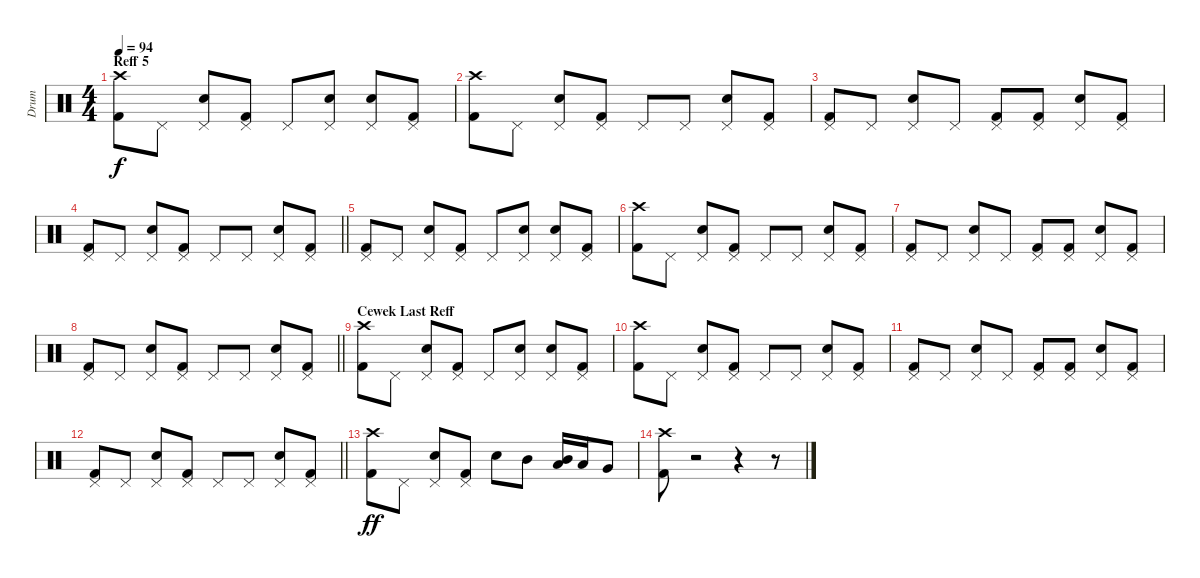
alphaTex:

\track ("Drum" "Drum") {instrument percussion}
\staff {score}
\articulation defaults
\ts (4 4)
\section ("" "Reff 5")
\tempo 94
\clef neutral
\ks c
("Crash high (hit)" "Kick (hit) 2").8{dy f} "Pedal Hi-Hat (hit)".8 ("Pedal Hi-Hat (hit)" "Electric Snare (hit)").8 ("Pedal Hi-Hat (hit)" "Kick (hit) 2").8 "Pedal Hi-Hat (hit)".8 ("Pedal Hi-Hat (hit)" "Electric Snare (hit)").8 ("Pedal Hi-Hat (hit)" "Electric Snare (hit)").8 ("Pedal Hi-Hat (hit)" "Kick (hit) 2").8 |
("Crash high (hit)" "Kick (hit) 2").8 "Pedal Hi-Hat (hit)".8 ("Pedal Hi-Hat (hit)" "Electric Snare (hit)").8 ("Pedal Hi-Hat (hit)" "Kick (hit) 2").8 "Pedal Hi-Hat (hit)".8 "Pedal Hi-Hat (hit)".8 ("Pedal Hi-Hat (hit)" "Electric Snare (hit)").8 ("Pedal Hi-Hat (hit)" "Kick (hit) 2").8 |
("Pedal Hi-Hat (hit)" "Kick (hit) 2").8 "Pedal Hi-Hat (hit)".8 ("Pedal Hi-Hat (hit)" "Electric Snare (hit)").8 "Pedal Hi-Hat (hit)".8 ("Pedal Hi-Hat (hit)" "Kick (hit) 2").8 ("Pedal Hi-Hat (hit)" "Kick (hit) 2").8 ("Pedal Hi-Hat (hit)" "Electric Snare (hit)").8 ("Pedal Hi-Hat (hit)" "Kick (hit) 2").8 |
\barLineRight lightlight
("Pedal Hi-Hat (hit)" "Kick (hit) 2").8 "Pedal Hi-Hat (hit)".8 ("Pedal Hi-Hat (hit)" "Electric Snare (hit)").8 ("Pedal Hi-Hat (hit)" "Kick (hit) 2").8 "Pedal Hi-Hat (hit)".8 "Pedal Hi-Hat (hit)".8 ("Pedal Hi-Hat (hit)" "Electric Snare (hit)").8 ("Pedal Hi-Hat (hit)" "Kick (hit) 2").8 |
("Pedal Hi-Hat (hit)" "Kick (hit) 2").8 "Pedal Hi-Hat (hit)".8 ("Pedal Hi-Hat (hit)" "Electric Snare (hit)").8 ("Pedal Hi-Hat (hit)" "Kick (hit) 2").8 "Pedal Hi-Hat (hit)".8 ("Pedal Hi-Hat (hit)" "Electric Snare (hit)").8 ("Pedal Hi-Hat (hit)" "Electric Snare (hit)").8 ("Pedal Hi-Hat (hit)" "Kick (hit) 2").8 |
("Crash high (hit)" "Kick (hit) 2").8 "Pedal Hi-Hat (hit)".8 ("Pedal Hi-Hat (hit)" "Electric Snare (hit)").8 ("Pedal Hi-Hat (hit)" "Kick (hit) 2").8 "Pedal Hi-Hat (hit)".8 "Pedal Hi-Hat (hit)".8 ("Pedal Hi-Hat (hit)" "Electric Snare (hit)").8 ("Pedal Hi-Hat (hit)" "Kick (hit) 2").8 |
("Pedal Hi-Hat (hit)" "Kick (hit) 2").8 "Pedal Hi-Hat (hit)".8 ("Pedal Hi-Hat (hit)" "Electric Snare (hit)").8 "Pedal Hi-Hat (hit)".8 ("Pedal Hi-Hat (hit)" "Kick (hit) 2").8 ("Pedal Hi-Hat (hit)" "Kick (hit) 2").8 ("Pedal Hi-Hat (hit)" "Electric Snare (hit)").8 ("Pedal Hi-Hat (hit)" "Kick (hit) 2").8 |
\barLineRight lightlight
("Pedal Hi-Hat (hit)" "Kick (hit) 2").8 "Pedal Hi-Hat (hit)".8 ("Pedal Hi-Hat (hit)" "Electric Snare (hit)").8 ("Pedal Hi-Hat (hit)" "Kick (hit) 2").8 "Pedal Hi-Hat (hit)".8 "Pedal Hi-Hat (hit)".8 ("Pedal Hi-Hat (hit)" "Electric Snare (hit)").8 ("Pedal Hi-Hat (hit)" "Kick (hit) 2").8 |
\section ("" "Cewek Last Reff")
("Crash high (hit)" "Kick (hit) 2").8 "Pedal Hi-Hat (hit)".8 ("Pedal Hi-Hat (hit)" "Electric Snare (hit)").8 ("Pedal Hi-Hat (hit)" "Kick (hit) 2").8 "Pedal Hi-Hat (hit)".8 ("Pedal Hi-Hat (hit)" "Electric Snare (hit)").8 ("Pedal Hi-Hat (hit)" "Electric Snare (hit)").8 ("Pedal Hi-Hat (hit)" "Kick (hit) 2").8 |
("Crash high (hit)" "Kick (hit) 2").8 "Pedal Hi-Hat (hit)".8 ("Pedal Hi-Hat (hit)" "Electric Snare (hit)").8 ("Pedal Hi-Hat (hit)" "Kick (hit) 2").8 "Pedal Hi-Hat (hit)".8 "Pedal Hi-Hat (hit)".8 ("Pedal Hi-Hat (hit)" "Electric Snare (hit)").8 ("Pedal Hi-Hat (hit)" "Kick (hit) 2").8 |
("Pedal Hi-Hat (hit)" "Kick (hit) 2").8 "Pedal Hi-Hat (hit)".8 ("Pedal Hi-Hat (hit)" "Electric Snare (hit)").8 "Pedal Hi-Hat (hit)".8 ("Pedal Hi-Hat (hit)" "Kick (hit) 2").8 ("Pedal Hi-Hat (hit)" "Kick (hit) 2").8 ("Pedal Hi-Hat (hit)" "Electric Snare (hit)").8 ("Pedal Hi-Hat (hit)" "Kick (hit) 2").8 |
\barLineRight lightlight
("Pedal Hi-Hat (hit)" "Kick (hit) 2").8 "Pedal Hi-Hat (hit)".8 ("Pedal Hi-Hat (hit)" "Electric Snare (hit)").8 ("Pedal Hi-Hat (hit)" "Kick (hit) 2").8 "Pedal Hi-Hat (hit)".8 "Pedal Hi-Hat (hit)".8 ("Pedal Hi-Hat (hit)" "Electric Snare (hit)").8 ("Pedal Hi-Hat (hit)" "Kick (hit) 2").8 |
("Crash high (hit)" "Kick (hit) 2").8{dy ff} "Pedal Hi-Hat (hit)".8 ("Pedal Hi-Hat (hit)" "Electric Snare (hit)").8 ("Pedal Hi-Hat (hit)" "Kick (hit) 2").8 "Electric Snare (hit)".8 "Mid Tom (hit)".8 ("Low Tom (hit)" "Mid Tom (hit)").16 "Low Tom (hit)".16 "Very Low Tom (hit)".8 |
("Crash high (hit)" "Kick (hit) 2").8 r.2 r.4 r.8
